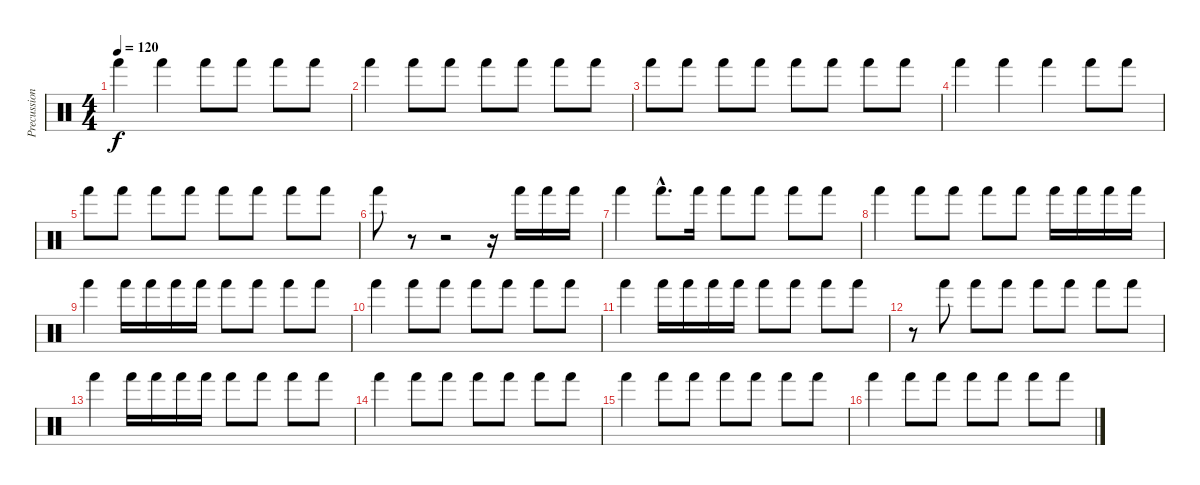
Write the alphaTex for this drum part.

\track ("Precussion" "Precussion") {instrument percussion}
\staff {score}
\articulation defaults
\ts (4 4)
\tempo 120
\clef neutral
\ks c "Hand (hit)".4{dy f} "Hand (hit)".4 "Hand (hit)".8 "Hand (hit)".8 "Hand (hit)".8 "Hand (hit)".8
|
"Hand (hit)".4 "Hand (hit)".8 "Hand (hit)".8 "Hand (hit)".8 "Hand (hit)".8 "Hand (hit)".8 "Hand (hit)".8 |
"Hand (hit)".8 "Hand (hit)".8 "Hand (hit)".8 "Hand (hit)".8 "Hand (hit)".8 "Hand (hit)".8 "Hand (hit)".8 "Hand (hit)".8 |
"Hand (hit)".4 "Hand (hit)".4 "Hand (hit)".4 "Hand (hit)".8 "Hand (hit)".8 |
"Hand (hit)".8 "Hand (hit)".8 "Hand (hit)".8 "Hand (hit)".8 "Hand (hit)".8 "Hand (hit)".8 "Hand (hit)".8 "Hand (hit)".8 |
"Hand (hit)".8 r.8 r.2 r.16 "Hand (hit)".16 "Hand (hit)".16 "Hand (hit)".16 |
"Hand (hit)".4 "Hand (hit)"{hac}.8{d} "Hand (hit)".16 "Hand (hit)".8 "Hand (hit)".8 "Hand (hit)".8 "Hand (hit)".8 |
"Hand (hit)".4 "Hand (hit)".8 "Hand (hit)".8 "Hand (hit)".8 "Hand (hit)".8 "Hand (hit)".16 "Hand (hit)".16 "Hand (hit)".16 "Hand (hit)".16 |
"Hand (hit)".4 "Hand (hit)".16 "Hand (hit)".16 "Hand (hit)".16 "Hand (hit)".16 "Hand (hit)".8 "Hand (hit)".8 "Hand (hit)".8 "Hand (hit)".8 |
"Hand (hit)".4 "Hand (hit)".8 "Hand (hit)".8 "Hand (hit)".8 "Hand (hit)".8 "Hand (hit)".8 "Hand (hit)".8 |
"Hand (hit)".4 "Hand (hit)".16 "Hand (hit)".16 "Hand (hit)".16 "Hand (hit)".16 "Hand (hit)".8 "Hand (hit)".8 "Hand (hit)".8 "Hand (hit)".8 |
r.8 "Hand (hit)".8 "Hand (hit)".8 "Hand (hit)".8 "Hand (hit)".8 "Hand (hit)".8 "Hand (hit)".8 "Hand (hit)".8 |
"Hand (hit)".4 "Hand (hit)".16 "Hand (hit)".16 "Hand (hit)".16 "Hand (hit)".16 "Hand (hit)".8 "Hand (hit)".8 "Hand (hit)".8 "Hand (hit)".8 |
"Hand (hit)".4 "Hand (hit)".8 "Hand (hit)".8 "Hand (hit)".8 "Hand (hit)".8 "Hand (hit)".8 "Hand (hit)".8 |
"Hand (hit)".4 "Hand (hit)".8 "Hand (hit)".8 "Hand (hit)".8 "Hand (hit)".8 "Hand (hit)".8 "Hand (hit)".8 |
"Hand (hit)".4 "Hand (hit)".8 "Hand (hit)".8 "Hand (hit)".8 "Hand (hit)".8 "Hand (hit)".8 "Hand (hit)".8
